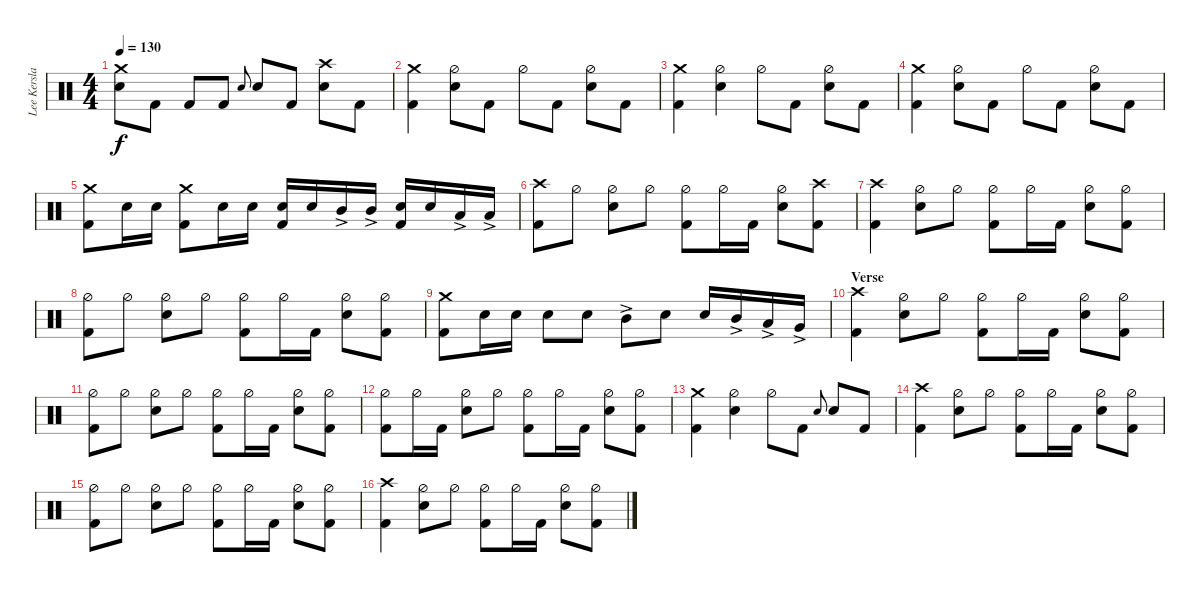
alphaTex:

\track ("Lee Kerslake" "Lee Kersla") {instrument percussion}
\staff {score}
\articulation defaults
\ts (4 4)
\tempo 130
\clef neutral
\ks c
("Snare (hit) 2" "Crash medium (hit)").8{dy f} "Kick (hit) 2".8 "Kick (hit) 2".8 "Kick (hit) 2".8 "Snare (hit)".8{gr onbeat} "Snare (hit) 2".8 "Kick (hit) 2".8 ("Snare (hit) 2" "Crash high (hit)").8 "Kick (hit) 2".8 |
("Crash medium (hit)" "Kick (hit) 2").4 ("Hi-Hat (half)" "Snare (hit) 2").8 "Kick (hit) 2".8 "Hi-Hat (half)".8 "Kick (hit) 2".8 ("Snare (hit) 2" "Hi-Hat (half)").8 "Kick (hit) 2".8 |
("Crash medium (hit)" "Kick (hit) 2").4 ("Hi-Hat (half)" "Snare (hit) 2").4 "Hi-Hat (half)".8 "Kick (hit) 2".8 ("Snare (hit) 2" "Hi-Hat (half)").8 "Kick (hit) 2".8 |
("Crash medium (hit)" "Kick (hit) 2").4 ("Hi-Hat (half)" "Snare (hit) 2").8 "Kick (hit) 2".8 "Hi-Hat (half)".8 "Kick (hit) 2".8 ("Snare (hit) 2" "Hi-Hat (half)").8 "Kick (hit) 2".8 |
("Kick (hit) 2" "Crash medium (hit)").8 "Snare (hit) 2".16 "Snare (hit) 2".16 ("Kick (hit) 2" "Crash medium (hit)").8 "Snare (hit) 2".16 "Snare (hit) 2".16 ("Snare (hit) 2" "Kick (hit) 2").16 "Snare (hit) 2".16 "Mid Tom (hit)"{ac}.16 "Mid Tom (hit)"{ac}.16 ("Snare (hit) 2" "Kick (hit) 2").16 "Snare (hit) 2".16 "Low Tom (hit)"{ac}.16 "Low Tom (hit)"{ac}.16 |
("Kick (hit) 2" "Crash high (hit)").8 "Hi-Hat (half)".8 ("Snare (hit) 2" "Hi-Hat (half)").8 "Hi-Hat (half)".8 ("Kick (hit) 2" "Hi-Hat (half)").8 "Hi-Hat (half)".16 "Kick (hit) 2".16 ("Snare (hit) 2" "Hi-Hat (half)").8 ("Kick (hit) 2" "Crash high (hit)").8 |
("Kick (hit) 2" "Crash high (hit)").4 ("Snare (hit) 2" "Hi-Hat (half)").8 "Hi-Hat (half)".8 ("Kick (hit) 2" "Hi-Hat (half)").8 "Hi-Hat (half)".16 "Kick (hit) 2".16 ("Snare (hit) 2" "Hi-Hat (half)").8 ("Kick (hit) 2" "Hi-Hat (half)").8 |
("Kick (hit) 2" "Hi-Hat (half)").8 "Hi-Hat (half)".8 ("Snare (hit) 2" "Hi-Hat (half)").8 "Hi-Hat (half)".8 ("Kick (hit) 2" "Hi-Hat (half)").8 "Hi-Hat (half)".16 "Kick (hit) 2".16 ("Snare (hit) 2" "Hi-Hat (half)").8 ("Kick (hit) 2" "Hi-Hat (half)").8 |
("Kick (hit) 2" "Crash medium (hit)").8 "Snare (hit) 2".16 "Snare (hit) 2".16 "Snare (hit) 2".8 "Snare (hit) 2".8 "Mid Tom (hit)"{ac}.8 "Snare (hit) 2".8 "Snare (hit) 2".16 "Mid Tom (hit)"{ac}.16 "Low Tom (hit)"{ac}.16 "Very Low Tom (hit)"{ac}.16 |
\section ("" "Verse")
("Kick (hit) 2" "Crash high (hit)").4 ("Snare (hit) 2" "Hi-Hat (half)").8 "Hi-Hat (half)".8 ("Kick (hit) 2" "Hi-Hat (half)").8 "Hi-Hat (half)".16 "Kick (hit) 2".16 ("Snare (hit) 2" "Hi-Hat (half)").8 ("Kick (hit) 2" "Hi-Hat (half)").8 |
("Kick (hit) 2" "Hi-Hat (half)").8 "Hi-Hat (half)".8 ("Snare (hit) 2" "Hi-Hat (half)").8 "Hi-Hat (half)".8 ("Kick (hit) 2" "Hi-Hat (half)").8 "Hi-Hat (half)".16 "Kick (hit) 2".16 ("Snare (hit) 2" "Hi-Hat (half)").8 ("Kick (hit) 2" "Hi-Hat (half)").8 |
("Kick (hit) 2" "Hi-Hat (half)").8 "Hi-Hat (half)".16 "Kick (hit) 2".16 ("Snare (hit) 2" "Hi-Hat (half)").8 "Hi-Hat (half)".8 ("Kick (hit) 2" "Hi-Hat (half)").8 "Hi-Hat (half)".16 "Kick (hit) 2".16 ("Snare (hit) 2" "Hi-Hat (half)").8 ("Kick (hit) 2" "Hi-Hat (half)").8 |
("Crash medium (hit)" "Kick (hit) 2").4 ("Hi-Hat (half)" "Snare (hit) 2").4 "Hi-Hat (half)".8 "Kick (hit) 2".8 "Snare (hit)".8{gr onbeat} "Snare (hit) 2".8 "Kick (hit) 2".8 |
("Kick (hit) 2" "Crash high (hit)").4 ("Snare (hit) 2" "Hi-Hat (half)").8 "Hi-Hat (half)".8 ("Kick (hit) 2" "Hi-Hat (half)").8 "Hi-Hat (half)".16 "Kick (hit) 2".16 ("Snare (hit) 2" "Hi-Hat (half)").8 ("Kick (hit) 2" "Hi-Hat (half)").8 |
("Kick (hit) 2" "Hi-Hat (half)").8 "Hi-Hat (half)".8 ("Snare (hit) 2" "Hi-Hat (half)").8 "Hi-Hat (half)".8 ("Kick (hit) 2" "Hi-Hat (half)").8 "Hi-Hat (half)".16 "Kick (hit) 2".16 ("Snare (hit) 2" "Hi-Hat (half)").8 ("Kick (hit) 2" "Hi-Hat (half)").8 |
("Kick (hit) 2" "Crash high (hit)").4 ("Snare (hit) 2" "Hi-Hat (half)").8 "Hi-Hat (half)".8 ("Kick (hit) 2" "Hi-Hat (half)").8 "Hi-Hat (half)".16 "Kick (hit) 2".16 ("Snare (hit) 2" "Hi-Hat (half)").8 ("Kick (hit) 2" "Hi-Hat (half)").8
